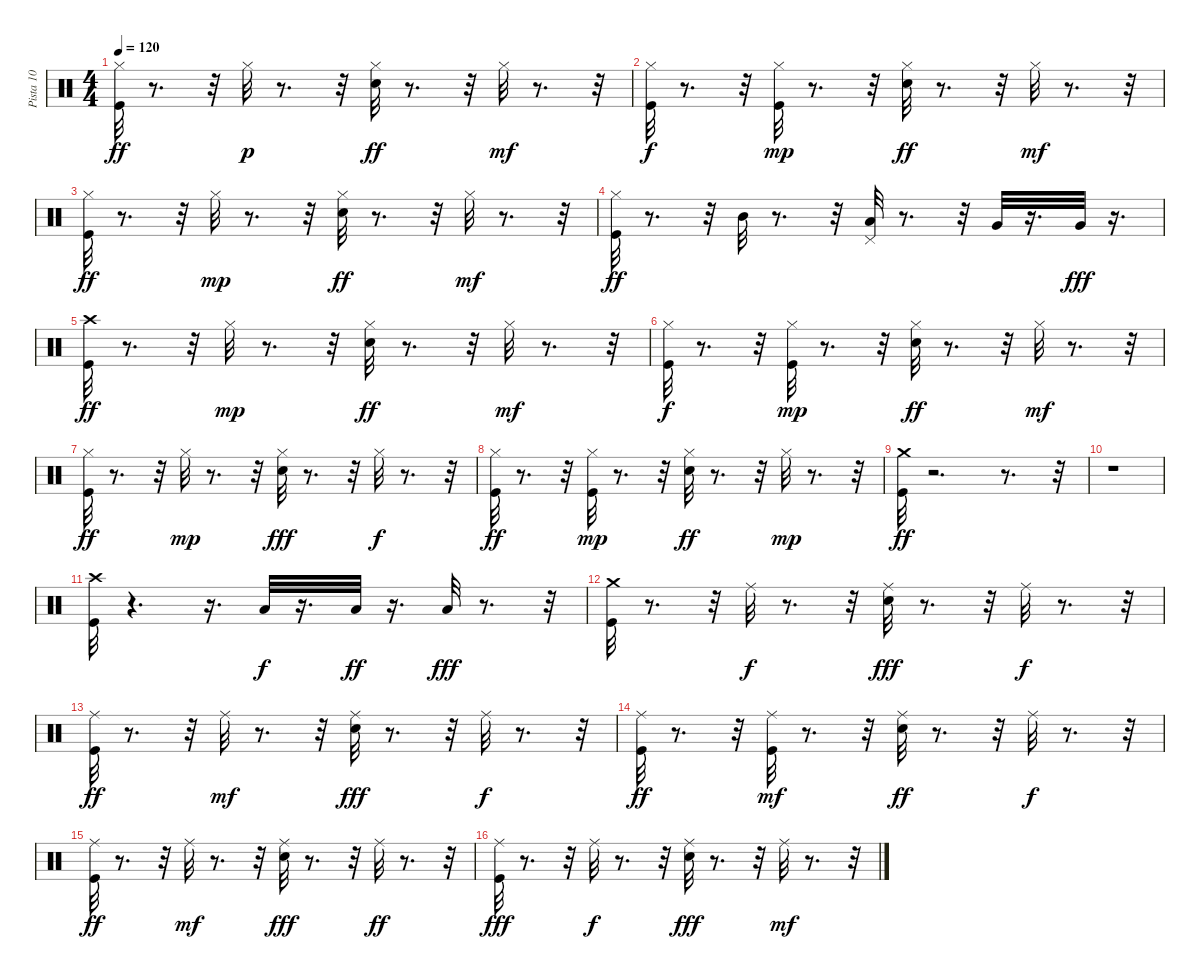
\track ("Pista 10" "Pista 10") {instrument percussion}
\staff {score}
\articulation defaults
\ts (4 4)
\tempo 120
\clef neutral
\ks c
("Kick (hit)" "Hi-Hat (closed)").32{dy ff} r.8{d} r.32 "Hi-Hat (closed)".32{dy p} r.8{d} r.32 ("Snare (hit) 2" "Hi-Hat (closed)").32{dy ff} r.8{d} r.32 "Hi-Hat (closed)".32{dy mf} r.8{d} r.32 |
("Kick (hit)" "Hi-Hat (closed)").32{dy f} r.8{d} r.32 ("Kick (hit)" "Hi-Hat (closed)").32{dy mp} r.8{d} r.32 ("Snare (hit) 2" "Hi-Hat (closed)").32{dy ff} r.8{d} r.32 "Hi-Hat (closed)".32{dy mf} r.8{d} r.32 |
("Kick (hit)" "Hi-Hat (closed)").32{dy ff} r.8{d} r.32 "Hi-Hat (closed)".32{dy mp} r.8{d} r.32 ("Snare (hit) 2" "Hi-Hat (closed)").32{dy ff} r.8{d} r.32 "Hi-Hat (closed)".32{dy mf} r.8{d} r.32 |
("Kick (hit)" "Hi-Hat (closed)").32{dy ff} r.8{d} r.32 "Mid Tom (hit)".32 r.8{d} r.32 ("Pedal Hi-Hat (hit)" "Low Tom (hit)").32 r.8{d} r.32 "Very Low Tom (hit)".32 r.16{d} "Very Low Tom (hit)".32{dy fff} r.16{d} |
("Kick (hit)" "Crash high (hit)").32{dy ff} r.8{d} r.32 "Hi-Hat (closed)".32{dy mp} r.8{d} r.32 ("Snare (hit) 2" "Hi-Hat (closed)").32{dy ff} r.8{d} r.32 "Hi-Hat (closed)".32{dy mf} r.8{d} r.32 |
("Kick (hit)" "Hi-Hat (closed)").32{dy f} r.8{d} r.32 ("Kick (hit)" "Hi-Hat (closed)").32{dy mp} r.8{d} r.32 ("Snare (hit) 2" "Hi-Hat (closed)").32{dy ff} r.8{d} r.32 "Hi-Hat (closed)".32{dy mf} r.8{d} r.32 |
("Kick (hit)" "Hi-Hat (closed)").32{dy ff} r.8{d} r.32 "Hi-Hat (closed)".32{dy mp} r.8{d} r.32 ("Snare (hit) 2" "Hi-Hat (closed)").32{dy fff} r.8{d} r.32 "Hi-Hat (closed)".32{dy f} r.8{d} r.32 |
("Kick (hit)" "Hi-Hat (closed)").32{dy ff} r.8{d} r.32 ("Kick (hit)" "Hi-Hat (closed)").32{dy mp} r.8{d} r.32 ("Snare (hit) 2" "Hi-Hat (closed)").32{dy ff} r.8{d} r.32 "Hi-Hat (closed)".32{dy mp} r.8{d} r.32 |
("Kick (hit)" "Crash medium (hit)").32{dy ff} r.2{d} r.8{d} r.32 |
r.1 |
("Kick (hit)" "Crash high (hit)").32 r.4{d} r.16{d} "Low Tom (hit)".32{dy f} r.16{d} "Low Tom (hit)".32{dy ff} r.16{d} "Low Floor Tom (hit)".32{dy fff} r.8{d} r.32 |
("Kick (hit)" "Crash medium (hit)").32 r.8{d} r.32 "Ride (middle)".32{dy f} r.8{d} r.32 ("Snare (hit) 2" "Ride (middle)").32{dy fff} r.8{d} r.32 "Ride (middle)".32{dy f} r.8{d} r.32 |
("Kick (hit)" "Ride (middle)").32{dy ff} r.8{d} r.32 "Ride (middle)".32{dy mf} r.8{d} r.32 ("Snare (hit) 2" "Ride (middle)").32{dy fff} r.8{d} r.32 "Ride (middle)".32{dy f} r.8{d} r.32 |
("Kick (hit)" "Ride (middle)").32{dy ff} r.8{d} r.32 ("Kick (hit)" "Ride (middle)").32{dy mf} r.8{d} r.32 ("Snare (hit) 2" "Ride (middle)").32{dy ff} r.8{d} r.32 "Ride (middle)".32{dy f} r.8{d} r.32 |
("Kick (hit)" "Ride (middle)").32{dy ff} r.8{d} r.32 "Ride (middle)".32{dy mf} r.8{d} r.32 ("Snare (hit) 2" "Ride (middle)").32{dy fff} r.8{d} r.32 "Ride (middle)".32{dy ff} r.8{d} r.32 |
("Kick (hit)" "Ride (middle)").32{dy fff} r.8{d} r.32 "Ride (middle)".32{dy f} r.8{d} r.32 ("Snare (hit) 2" "Ride (middle)").32{dy fff} r.8{d} r.32 "Ride (middle)".32{dy mf} r.8{d} r.32
